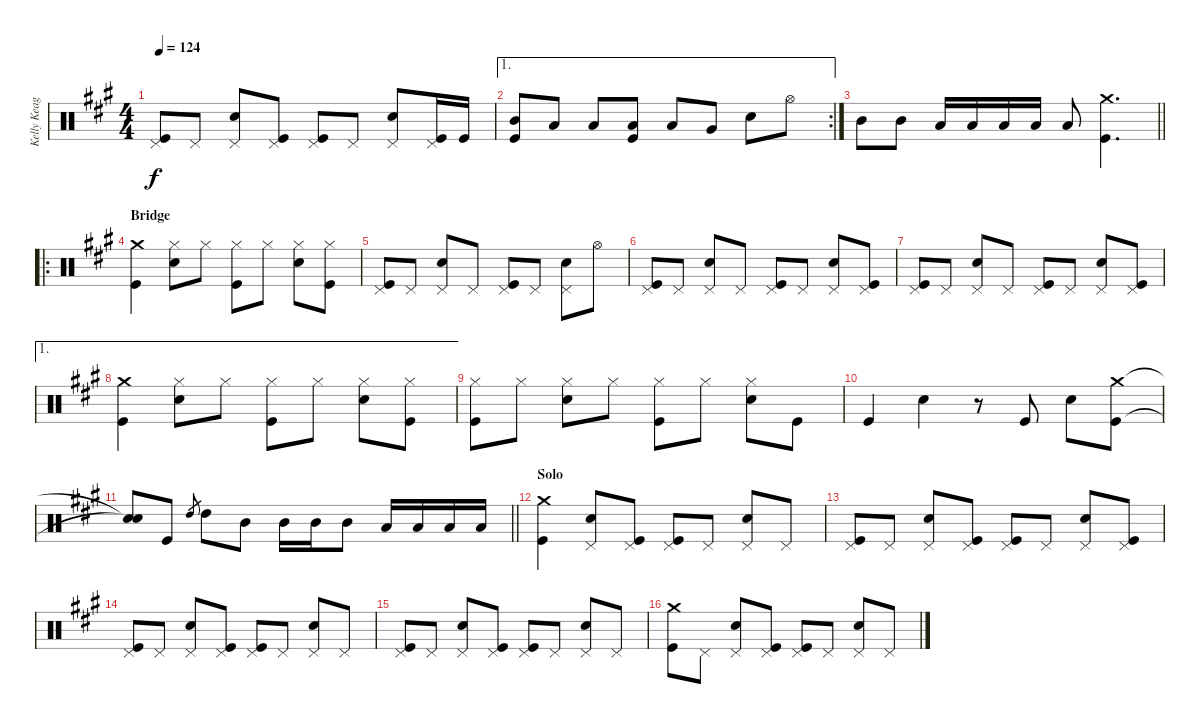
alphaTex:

\track ("Kelly Keagy" "Kelly Keag") {instrument percussion}
\staff {score}
\articulation defaults
\ts (4 4)
\tempo 124
\clef neutral
\ks a
("Pedal Hi-Hat (hit)" "Kick (hit)").8{dy f} "Pedal Hi-Hat (hit)".8 ("Pedal Hi-Hat (hit)" "Snare (hit) 2").8 ("Pedal Hi-Hat (hit)" "Kick (hit)").8 ("Pedal Hi-Hat (hit)" "Kick (hit)").8 "Pedal Hi-Hat (hit)".8 ("Pedal Hi-Hat (hit)" "Snare (hit) 2").8 ("Pedal Hi-Hat (hit)" "Kick (hit)").16 "Kick (hit)".16 |
\ae 1
\rc 2
("Mid Tom (hit)" "Kick (hit)").8 "Low Tom (hit)".8 "Low Tom (hit)".8 ("Low Tom (hit)" "Kick (hit)").8 "Low Tom (hit)".8 "Very Low Tom (hit)".8 "Snare (hit) 2".8 "Hi-Hat (open)".8 |
\barLineRight lightlight "Mid Tom (hit)".8 "Mid Tom (hit)".8 "Low Tom (hit)".16 "Low Tom (hit)".16 "Low Tom (hit)".16 "Low Tom (hit)".16 "Low Tom (hit)".8
("Crash medium (hit)" "Kick (hit)").4{d} |
\ro
\section ("" "Bridge")
("Crash medium (hit)" "Kick (hit)").4 ("Hi-Hat (closed)" "Snare (hit) 2").8 "Hi-Hat (closed)".8 ("Hi-Hat (closed)" "Kick (hit)").8 "Hi-Hat (closed)".8 ("Hi-Hat (closed)" "Snare (hit) 2").8 ("Hi-Hat (closed)" "Kick (hit)").8 |
("Pedal Hi-Hat (hit)" "Kick (hit)").8 "Pedal Hi-Hat (hit)".8 ("Pedal Hi-Hat (hit)" "Snare (hit) 2").8 "Pedal Hi-Hat (hit)".8 ("Pedal Hi-Hat (hit)" "Kick (hit)").8 "Pedal Hi-Hat (hit)".8 ("Pedal Hi-Hat (hit)" "Snare (hit) 2").8 "Hi-Hat (open)".8 |
("Pedal Hi-Hat (hit)" "Kick (hit)").8 "Pedal Hi-Hat (hit)".8 ("Pedal Hi-Hat (hit)" "Snare (hit) 2").8 "Pedal Hi-Hat (hit)".8 ("Pedal Hi-Hat (hit)" "Kick (hit)").8 "Pedal Hi-Hat (hit)".8 ("Pedal Hi-Hat (hit)" "Snare (hit) 2").8 ("Pedal Hi-Hat (hit)" "Kick (hit)").8 |
("Pedal Hi-Hat (hit)" "Kick (hit)").8 "Pedal Hi-Hat (hit)".8 ("Pedal Hi-Hat (hit)" "Snare (hit) 2").8 "Pedal Hi-Hat (hit)".8 ("Pedal Hi-Hat (hit)" "Kick (hit)").8 "Pedal Hi-Hat (hit)".8 ("Pedal Hi-Hat (hit)" "Snare (hit) 2").8 ("Pedal Hi-Hat (hit)" "Kick (hit)").8 |
\ae 1
("Crash medium (hit)" "Kick (hit)").4 ("Hi-Hat (closed)" "Snare (hit) 2").8 "Hi-Hat (closed)".8 ("Hi-Hat (closed)" "Kick (hit)").8 "Hi-Hat (closed)".8 ("Hi-Hat (closed)" "Snare (hit) 2").8 ("Hi-Hat (closed)" "Kick (hit)").8 |
("Hi-Hat (closed)" "Kick (hit)").8 "Hi-Hat (closed)".8 ("Hi-Hat (closed)" "Snare (hit) 2").8 "Hi-Hat (closed)".8 ("Hi-Hat (closed)" "Kick (hit)").8 "Hi-Hat (closed)".8 ("Hi-Hat (closed)" "Snare (hit) 2").8 "Kick (hit)".8 |
"Kick (hit)".4 "Snare (hit) 2".4 r.8 "Kick (hit)".8 "Snare (hit) 2".8 ("Crash medium (hit)" "Kick (hit)").8 |
\barLineRight lightlight
("Snare (hit)"{t} "Snare (hit)"{t}).8 "Kick (hit)".8 "High Tom (hit)".8{gr} "High Tom (hit)".8 "Mid Tom (hit)".8 "Mid Tom (hit)".16 "Mid Tom (hit)".16 "Mid Tom (hit)".8 "Low Tom (hit)".16 "Low Tom (hit)".16 "Low Tom (hit)".16 "Low Tom (hit)".16 |
\section ("" "Solo")
("Crash medium (hit)" "Kick (hit)").4 ("Pedal Hi-Hat (hit)" "Snare (hit) 2").8 ("Pedal Hi-Hat (hit)" "Kick (hit)").8 ("Pedal Hi-Hat (hit)" "Kick (hit)").8 "Pedal Hi-Hat (hit)".8 ("Pedal Hi-Hat (hit)" "Snare (hit) 2").8 "Pedal Hi-Hat (hit)".8 |
("Pedal Hi-Hat (hit)" "Kick (hit)").8 "Pedal Hi-Hat (hit)".8 ("Pedal Hi-Hat (hit)" "Snare (hit) 2").8 ("Pedal Hi-Hat (hit)" "Kick (hit)").8 ("Pedal Hi-Hat (hit)" "Kick (hit)").8 "Pedal Hi-Hat (hit)".8 ("Pedal Hi-Hat (hit)" "Snare (hit) 2").8 ("Pedal Hi-Hat (hit)" "Kick (hit)").8 |
("Pedal Hi-Hat (hit)" "Kick (hit)").8 "Pedal Hi-Hat (hit)".8 ("Pedal Hi-Hat (hit)" "Snare (hit) 2").8 ("Pedal Hi-Hat (hit)" "Kick (hit)").8 ("Pedal Hi-Hat (hit)" "Kick (hit)").8 "Pedal Hi-Hat (hit)".8 ("Pedal Hi-Hat (hit)" "Snare (hit) 2").8 "Pedal Hi-Hat (hit)".8 |
("Pedal Hi-Hat (hit)" "Kick (hit)").8 "Pedal Hi-Hat (hit)".8 ("Pedal Hi-Hat (hit)" "Snare (hit) 2").8 ("Pedal Hi-Hat (hit)" "Kick (hit)").8 ("Pedal Hi-Hat (hit)" "Kick (hit)").8 "Pedal Hi-Hat (hit)".8 ("Pedal Hi-Hat (hit)" "Snare (hit) 2").8 "Pedal Hi-Hat (hit)".8 |
("Crash medium (hit)" "Kick (hit)").8 "Pedal Hi-Hat (hit)".8 ("Pedal Hi-Hat (hit)" "Snare (hit) 2").8 ("Pedal Hi-Hat (hit)" "Kick (hit)").8 ("Pedal Hi-Hat (hit)" "Kick (hit)").8 "Pedal Hi-Hat (hit)".8 ("Pedal Hi-Hat (hit)" "Snare (hit) 2").8 "Pedal Hi-Hat (hit)".8
